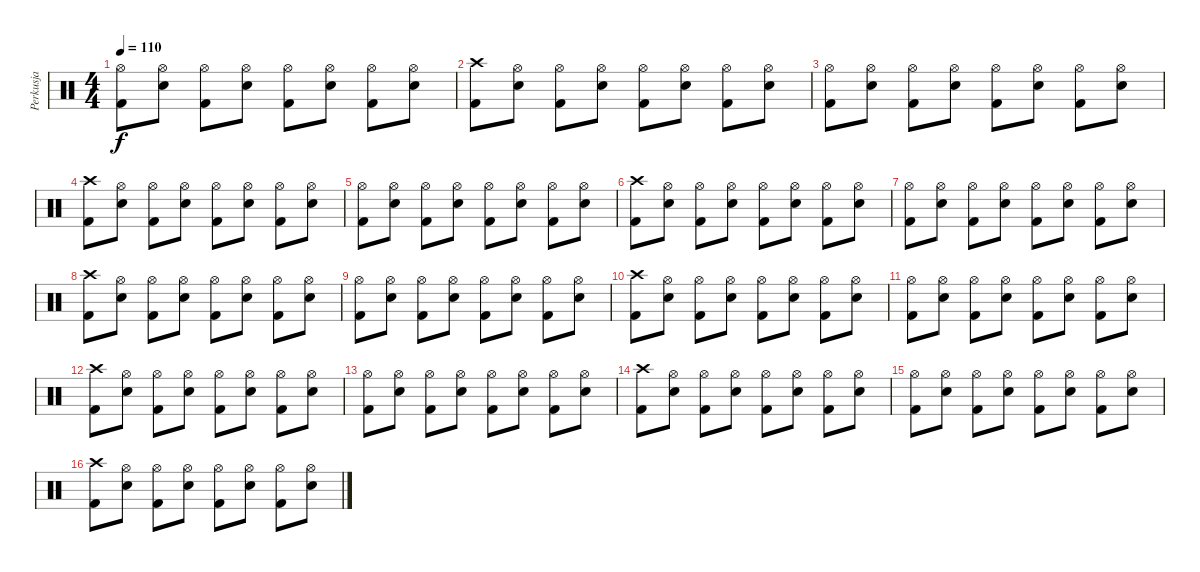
\track ("Perkusja" "Perkusja") {instrument percussion}
\staff {score}
\articulation defaults
\ts (4 4)
\tempo 110
\clef neutral
\ks c
("Hi-Hat (open)" "Kick (hit) 2").8{dy f} ("Hi-Hat (open)" "Electric Snare (hit)").8 ("Hi-Hat (open)" "Kick (hit) 2").8 ("Hi-Hat (open)" "Electric Snare (hit)").8 ("Hi-Hat (open)" "Kick (hit) 2").8 ("Hi-Hat (open)" "Electric Snare (hit)").8 ("Hi-Hat (open)" "Kick (hit) 2").8 ("Hi-Hat (open)" "Electric Snare (hit)").8 |
("Crash high (hit)" "Kick (hit) 2").8 ("Hi-Hat (open)" "Electric Snare (hit)").8 ("Hi-Hat (open)" "Kick (hit) 2").8 ("Hi-Hat (open)" "Electric Snare (hit)").8 ("Hi-Hat (open)" "Kick (hit) 2").8 ("Hi-Hat (open)" "Electric Snare (hit)").8 ("Hi-Hat (open)" "Kick (hit) 2").8 ("Hi-Hat (open)" "Electric Snare (hit)").8 |
("Hi-Hat (open)" "Kick (hit) 2").8 ("Hi-Hat (open)" "Electric Snare (hit)").8 ("Hi-Hat (open)" "Kick (hit) 2").8 ("Hi-Hat (open)" "Electric Snare (hit)").8 ("Hi-Hat (open)" "Kick (hit) 2").8 ("Hi-Hat (open)" "Electric Snare (hit)").8 ("Hi-Hat (open)" "Kick (hit) 2").8 ("Hi-Hat (open)" "Electric Snare (hit)").8 |
("Crash high (hit)" "Kick (hit) 2").8 ("Hi-Hat (open)" "Electric Snare (hit)").8 ("Hi-Hat (open)" "Kick (hit) 2").8 ("Hi-Hat (open)" "Electric Snare (hit)").8 ("Hi-Hat (open)" "Kick (hit) 2").8 ("Hi-Hat (open)" "Electric Snare (hit)").8 ("Hi-Hat (open)" "Kick (hit) 2").8 ("Hi-Hat (open)" "Electric Snare (hit)").8 |
("Hi-Hat (open)" "Kick (hit) 2").8 ("Hi-Hat (open)" "Electric Snare (hit)").8 ("Hi-Hat (open)" "Kick (hit) 2").8 ("Hi-Hat (open)" "Electric Snare (hit)").8 ("Hi-Hat (open)" "Kick (hit) 2").8 ("Hi-Hat (open)" "Electric Snare (hit)").8 ("Hi-Hat (open)" "Kick (hit) 2").8 ("Hi-Hat (open)" "Electric Snare (hit)").8 |
("Crash high (hit)" "Kick (hit) 2").8 ("Hi-Hat (open)" "Electric Snare (hit)").8 ("Hi-Hat (open)" "Kick (hit) 2").8 ("Hi-Hat (open)" "Electric Snare (hit)").8 ("Hi-Hat (open)" "Kick (hit) 2").8 ("Hi-Hat (open)" "Electric Snare (hit)").8 ("Hi-Hat (open)" "Kick (hit) 2").8 ("Hi-Hat (open)" "Electric Snare (hit)").8 |
("Hi-Hat (open)" "Kick (hit) 2").8 ("Hi-Hat (open)" "Electric Snare (hit)").8 ("Hi-Hat (open)" "Kick (hit) 2").8 ("Hi-Hat (open)" "Electric Snare (hit)").8 ("Hi-Hat (open)" "Kick (hit) 2").8 ("Hi-Hat (open)" "Electric Snare (hit)").8 ("Hi-Hat (open)" "Kick (hit) 2").8 ("Hi-Hat (open)" "Electric Snare (hit)").8 |
("Crash high (hit)" "Kick (hit) 2").8 ("Hi-Hat (open)" "Electric Snare (hit)").8 ("Hi-Hat (open)" "Kick (hit) 2").8 ("Hi-Hat (open)" "Electric Snare (hit)").8 ("Hi-Hat (open)" "Kick (hit) 2").8 ("Hi-Hat (open)" "Electric Snare (hit)").8 ("Hi-Hat (open)" "Kick (hit) 2").8 ("Hi-Hat (open)" "Electric Snare (hit)").8 |
("Hi-Hat (open)" "Kick (hit) 2").8 ("Hi-Hat (open)" "Electric Snare (hit)").8 ("Hi-Hat (open)" "Kick (hit) 2").8 ("Hi-Hat (open)" "Electric Snare (hit)").8 ("Hi-Hat (open)" "Kick (hit) 2").8 ("Hi-Hat (open)" "Electric Snare (hit)").8 ("Hi-Hat (open)" "Kick (hit) 2").8 ("Hi-Hat (open)" "Electric Snare (hit)").8 |
("Crash high (hit)" "Kick (hit) 2").8 ("Hi-Hat (open)" "Electric Snare (hit)").8 ("Hi-Hat (open)" "Kick (hit) 2").8 ("Hi-Hat (open)" "Electric Snare (hit)").8 ("Hi-Hat (open)" "Kick (hit) 2").8 ("Hi-Hat (open)" "Electric Snare (hit)").8 ("Hi-Hat (open)" "Kick (hit) 2").8 ("Hi-Hat (open)" "Electric Snare (hit)").8 |
("Hi-Hat (open)" "Kick (hit) 2").8 ("Hi-Hat (open)" "Electric Snare (hit)").8 ("Hi-Hat (open)" "Kick (hit) 2").8 ("Hi-Hat (open)" "Electric Snare (hit)").8 ("Hi-Hat (open)" "Kick (hit) 2").8 ("Hi-Hat (open)" "Electric Snare (hit)").8 ("Hi-Hat (open)" "Kick (hit) 2").8 ("Hi-Hat (open)" "Electric Snare (hit)").8 |
("Crash high (hit)" "Kick (hit) 2").8 ("Hi-Hat (open)" "Electric Snare (hit)").8 ("Hi-Hat (open)" "Kick (hit) 2").8 ("Hi-Hat (open)" "Electric Snare (hit)").8 ("Hi-Hat (open)" "Kick (hit) 2").8 ("Hi-Hat (open)" "Electric Snare (hit)").8 ("Hi-Hat (open)" "Kick (hit) 2").8 ("Hi-Hat (open)" "Electric Snare (hit)").8 |
("Hi-Hat (open)" "Kick (hit) 2").8 ("Hi-Hat (open)" "Electric Snare (hit)").8 ("Hi-Hat (open)" "Kick (hit) 2").8 ("Hi-Hat (open)" "Electric Snare (hit)").8 ("Hi-Hat (open)" "Kick (hit) 2").8 ("Hi-Hat (open)" "Electric Snare (hit)").8 ("Hi-Hat (open)" "Kick (hit) 2").8 ("Hi-Hat (open)" "Electric Snare (hit)").8 |
("Crash high (hit)" "Kick (hit) 2").8 ("Hi-Hat (open)" "Electric Snare (hit)").8 ("Hi-Hat (open)" "Kick (hit) 2").8 ("Hi-Hat (open)" "Electric Snare (hit)").8 ("Hi-Hat (open)" "Kick (hit) 2").8 ("Hi-Hat (open)" "Electric Snare (hit)").8 ("Hi-Hat (open)" "Kick (hit) 2").8 ("Hi-Hat (open)" "Electric Snare (hit)").8 |
("Hi-Hat (open)" "Kick (hit) 2").8 ("Hi-Hat (open)" "Electric Snare (hit)").8 ("Hi-Hat (open)" "Kick (hit) 2").8 ("Hi-Hat (open)" "Electric Snare (hit)").8 ("Hi-Hat (open)" "Kick (hit) 2").8 ("Hi-Hat (open)" "Electric Snare (hit)").8 ("Hi-Hat (open)" "Kick (hit) 2").8 ("Hi-Hat (open)" "Electric Snare (hit)").8 |
("Crash high (hit)" "Kick (hit) 2").8 ("Hi-Hat (open)" "Electric Snare (hit)").8 ("Hi-Hat (open)" "Kick (hit) 2").8 ("Hi-Hat (open)" "Electric Snare (hit)").8 ("Hi-Hat (open)" "Kick (hit) 2").8 ("Hi-Hat (open)" "Electric Snare (hit)").8 ("Hi-Hat (open)" "Kick (hit) 2").8 ("Hi-Hat (open)" "Electric Snare (hit)").8
